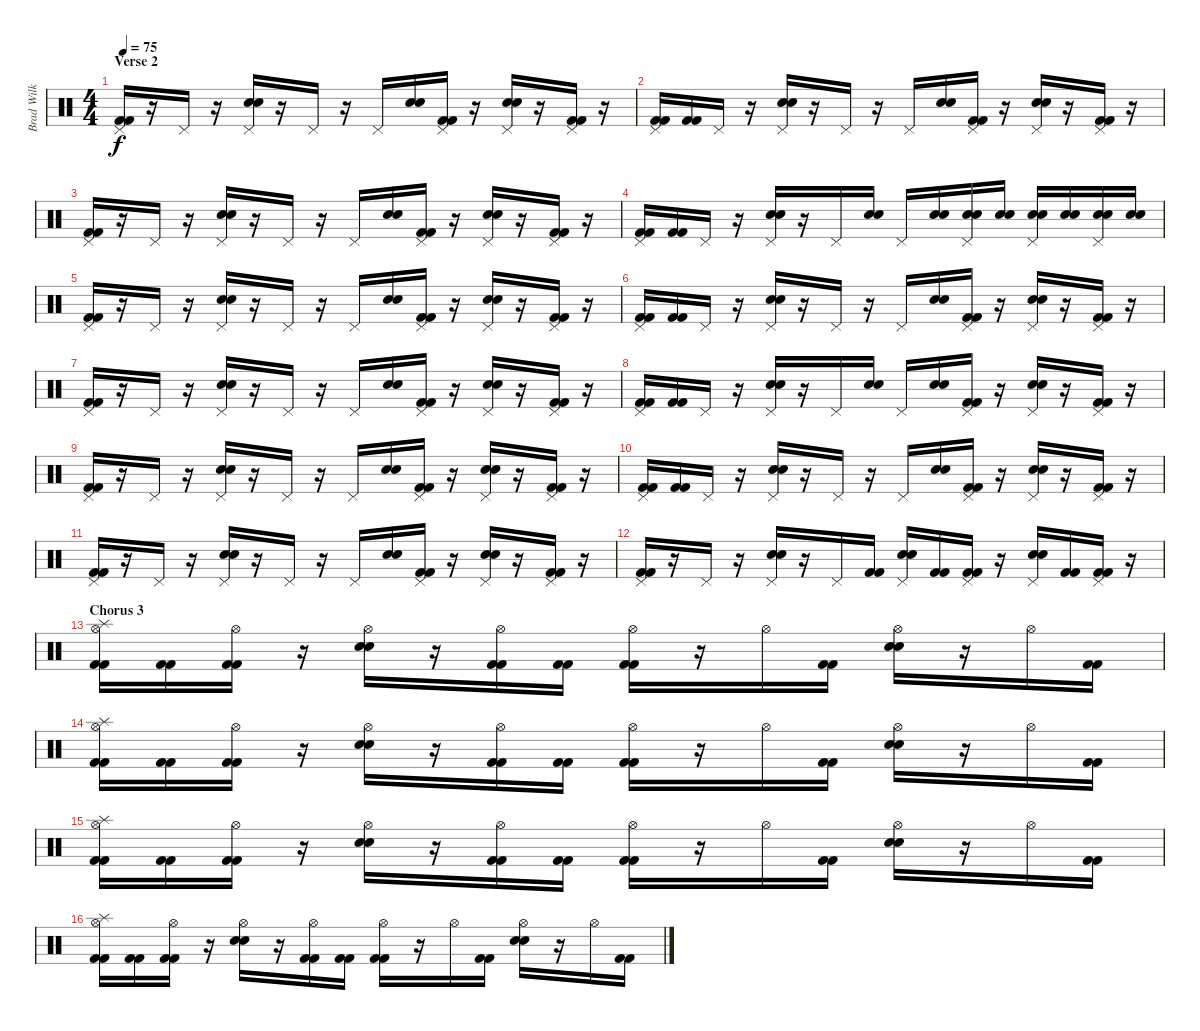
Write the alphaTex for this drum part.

\track ("Brad Wilk" "Brad Wilk") {instrument percussion}
\staff {score}
\articulation defaults
\ts (4 4)
\section ("" "Verse 2")
\tempo 75
\clef neutral
\ks c
("Pedal Hi-Hat (hit)" "Kick (hit) 2" "Kick (hit) 2").16{dy f} r.16 "Pedal Hi-Hat (hit)".16 r.16 ("Pedal Hi-Hat (hit)" "Electric Snare (hit)" "Electric Snare (hit)").16 r.16 "Pedal Hi-Hat (hit)".16 r.16 "Pedal Hi-Hat (hit)".16 ("Electric Snare (hit)" "Electric Snare (hit)").16 ("Pedal Hi-Hat (hit)" "Kick (hit) 2" "Kick (hit) 2").16 r.16 ("Pedal Hi-Hat (hit)" "Electric Snare (hit)" "Electric Snare (hit)").16 r.16 ("Pedal Hi-Hat (hit)" "Kick (hit) 2" "Kick (hit) 2").16 r.16 |
("Pedal Hi-Hat (hit)" "Kick (hit) 2" "Kick (hit) 2").16 ("Kick (hit) 2" "Kick (hit) 2").16 "Pedal Hi-Hat (hit)".16 r.16 ("Pedal Hi-Hat (hit)" "Electric Snare (hit)" "Electric Snare (hit)").16 r.16 "Pedal Hi-Hat (hit)".16 r.16 "Pedal Hi-Hat (hit)".16 ("Electric Snare (hit)" "Electric Snare (hit)").16 ("Pedal Hi-Hat (hit)" "Kick (hit) 2" "Kick (hit) 2").16 r.16 ("Pedal Hi-Hat (hit)" "Electric Snare (hit)" "Electric Snare (hit)").16 r.16 ("Pedal Hi-Hat (hit)" "Kick (hit) 2" "Kick (hit) 2").16 r.16 |
("Pedal Hi-Hat (hit)" "Kick (hit) 2" "Kick (hit) 2").16 r.16 "Pedal Hi-Hat (hit)".16 r.16 ("Pedal Hi-Hat (hit)" "Electric Snare (hit)" "Electric Snare (hit)").16 r.16 "Pedal Hi-Hat (hit)".16 r.16 "Pedal Hi-Hat (hit)".16 ("Electric Snare (hit)" "Electric Snare (hit)").16 ("Pedal Hi-Hat (hit)" "Kick (hit) 2" "Kick (hit) 2").16 r.16 ("Pedal Hi-Hat (hit)" "Electric Snare (hit)" "Electric Snare (hit)").16 r.16 ("Pedal Hi-Hat (hit)" "Kick (hit) 2" "Kick (hit) 2").16 r.16 |
("Pedal Hi-Hat (hit)" "Kick (hit) 2" "Kick (hit) 2").16 ("Kick (hit) 2" "Kick (hit) 2").16 "Pedal Hi-Hat (hit)".16 r.16 ("Pedal Hi-Hat (hit)" "Electric Snare (hit)" "Electric Snare (hit)").16 r.16 "Pedal Hi-Hat (hit)".16 ("Electric Snare (hit)" "Electric Snare (hit)").16 "Pedal Hi-Hat (hit)".16 ("Electric Snare (hit)" "Electric Snare (hit)").16 ("Pedal Hi-Hat (hit)" "Electric Snare (hit)" "Electric Snare (hit)").16 ("Electric Snare (hit)" "Electric Snare (hit)").16 ("Pedal Hi-Hat (hit)" "Electric Snare (hit)" "Electric Snare (hit)").16 ("Electric Snare (hit)" "Electric Snare (hit)").16 ("Pedal Hi-Hat (hit)" "Electric Snare (hit)" "Electric Snare (hit)").16 ("Electric Snare (hit)" "Electric Snare (hit)").16 |
("Pedal Hi-Hat (hit)" "Kick (hit) 2" "Kick (hit) 2").16{volume 16} r.16 "Pedal Hi-Hat (hit)".16 r.16 ("Pedal Hi-Hat (hit)" "Electric Snare (hit)" "Electric Snare (hit)").16 r.16 "Pedal Hi-Hat (hit)".16 r.16 "Pedal Hi-Hat (hit)".16 ("Electric Snare (hit)" "Electric Snare (hit)").16 ("Pedal Hi-Hat (hit)" "Kick (hit) 2" "Kick (hit) 2").16 r.16 ("Pedal Hi-Hat (hit)" "Electric Snare (hit)" "Electric Snare (hit)").16 r.16 ("Pedal Hi-Hat (hit)" "Kick (hit) 2" "Kick (hit) 2").16 r.16 |
("Pedal Hi-Hat (hit)" "Kick (hit) 2" "Kick (hit) 2").16 ("Kick (hit) 2" "Kick (hit) 2").16 "Pedal Hi-Hat (hit)".16 r.16 ("Pedal Hi-Hat (hit)" "Electric Snare (hit)" "Electric Snare (hit)").16 r.16 "Pedal Hi-Hat (hit)".16 r.16 "Pedal Hi-Hat (hit)".16 ("Electric Snare (hit)" "Electric Snare (hit)").16 ("Pedal Hi-Hat (hit)" "Kick (hit) 2" "Kick (hit) 2").16 r.16 ("Pedal Hi-Hat (hit)" "Electric Snare (hit)" "Electric Snare (hit)").16 r.16 ("Pedal Hi-Hat (hit)" "Kick (hit) 2" "Kick (hit) 2").16 r.16 |
("Pedal Hi-Hat (hit)" "Kick (hit) 2" "Kick (hit) 2").16 r.16 "Pedal Hi-Hat (hit)".16 r.16 ("Pedal Hi-Hat (hit)" "Electric Snare (hit)" "Electric Snare (hit)").16 r.16 "Pedal Hi-Hat (hit)".16 r.16 "Pedal Hi-Hat (hit)".16 ("Electric Snare (hit)" "Electric Snare (hit)").16 ("Pedal Hi-Hat (hit)" "Kick (hit) 2" "Kick (hit) 2").16 r.16 ("Pedal Hi-Hat (hit)" "Electric Snare (hit)" "Electric Snare (hit)").16 r.16 ("Pedal Hi-Hat (hit)" "Kick (hit) 2" "Kick (hit) 2").16 r.16 |
("Pedal Hi-Hat (hit)" "Kick (hit) 2" "Kick (hit) 2").16 ("Kick (hit) 2" "Kick (hit) 2").16 "Pedal Hi-Hat (hit)".16 r.16 ("Pedal Hi-Hat (hit)" "Electric Snare (hit)" "Electric Snare (hit)").16 r.16 "Pedal Hi-Hat (hit)".16 ("Electric Snare (hit)" "Electric Snare (hit)").16 "Pedal Hi-Hat (hit)".16 ("Electric Snare (hit)" "Electric Snare (hit)").16 ("Pedal Hi-Hat (hit)" "Kick (hit) 2" "Kick (hit) 2").16 r.16 ("Pedal Hi-Hat (hit)" "Electric Snare (hit)" "Electric Snare (hit)").16 r.16 ("Pedal Hi-Hat (hit)" "Kick (hit) 2" "Kick (hit) 2").16 r.16 |
("Pedal Hi-Hat (hit)" "Kick (hit) 2" "Kick (hit) 2").16 r.16 "Pedal Hi-Hat (hit)".16 r.16 ("Pedal Hi-Hat (hit)" "Electric Snare (hit)" "Electric Snare (hit)").16 r.16 "Pedal Hi-Hat (hit)".16 r.16 "Pedal Hi-Hat (hit)".16 ("Electric Snare (hit)" "Electric Snare (hit)").16 ("Pedal Hi-Hat (hit)" "Kick (hit) 2" "Kick (hit) 2").16 r.16 ("Pedal Hi-Hat (hit)" "Electric Snare (hit)" "Electric Snare (hit)").16 r.16 ("Pedal Hi-Hat (hit)" "Kick (hit) 2" "Kick (hit) 2").16 r.16 |
("Pedal Hi-Hat (hit)" "Kick (hit) 2" "Kick (hit) 2").16 ("Kick (hit) 2" "Kick (hit) 2").16 "Pedal Hi-Hat (hit)".16 r.16 ("Pedal Hi-Hat (hit)" "Electric Snare (hit)" "Electric Snare (hit)").16 r.16 "Pedal Hi-Hat (hit)".16 r.16 "Pedal Hi-Hat (hit)".16 ("Electric Snare (hit)" "Electric Snare (hit)").16 ("Pedal Hi-Hat (hit)" "Kick (hit) 2" "Kick (hit) 2").16 r.16 ("Pedal Hi-Hat (hit)" "Electric Snare (hit)" "Electric Snare (hit)").16 r.16 ("Pedal Hi-Hat (hit)" "Kick (hit) 2" "Kick (hit) 2").16 r.16 |
("Pedal Hi-Hat (hit)" "Kick (hit) 2" "Kick (hit) 2").16 r.16 "Pedal Hi-Hat (hit)".16 r.16 ("Pedal Hi-Hat (hit)" "Electric Snare (hit)" "Electric Snare (hit)").16 r.16 "Pedal Hi-Hat (hit)".16 r.16 "Pedal Hi-Hat (hit)".16 ("Electric Snare (hit)" "Electric Snare (hit)").16 ("Pedal Hi-Hat (hit)" "Kick (hit) 2" "Kick (hit) 2").16 r.16 ("Pedal Hi-Hat (hit)" "Electric Snare (hit)" "Electric Snare (hit)").16 r.16 ("Pedal Hi-Hat (hit)" "Kick (hit) 2" "Kick (hit) 2").16 r.16 |
("Pedal Hi-Hat (hit)" "Kick (hit) 2" "Kick (hit) 2").16 r.16 "Pedal Hi-Hat (hit)".16 r.16 ("Pedal Hi-Hat (hit)" "Electric Snare (hit)" "Electric Snare (hit)").16 r.16 "Pedal Hi-Hat (hit)".16 ("Kick (hit) 2" "Kick (hit) 2").16 ("Pedal Hi-Hat (hit)" "Electric Snare (hit)" "Electric Snare (hit)").16 ("Kick (hit) 2" "Kick (hit) 2").16 ("Pedal Hi-Hat (hit)" "Kick (hit) 2" "Kick (hit) 2").16 r.16 ("Pedal Hi-Hat (hit)" "Electric Snare (hit)" "Electric Snare (hit)").16 ("Kick (hit) 2" "Kick (hit) 2").16 ("Pedal Hi-Hat (hit)" "Kick (hit) 2" "Kick (hit) 2").16 r.16 |
\section ("" "Chorus 3")
("Hi-Hat (open)" "Splash (hit)" "Kick (hit) 2" "Kick (hit) 2").16 ("Kick (hit) 2" "Kick (hit) 2").16 ("Hi-Hat (open)" "Kick (hit) 2" "Kick (hit) 2").16 r.16 ("Hi-Hat (open)" "Electric Snare (hit)" "Electric Snare (hit)").16 r.16 ("Hi-Hat (open)" "Kick (hit) 2" "Kick (hit) 2").16 ("Kick (hit) 2" "Kick (hit) 2").16 ("Hi-Hat (open)" "Kick (hit) 2" "Kick (hit) 2").16 r.16 "Hi-Hat (open)".16 ("Kick (hit) 2" "Kick (hit) 2").16 ("Hi-Hat (open)" "Electric Snare (hit)" "Electric Snare (hit)").16 r.16 "Hi-Hat (open)".16 ("Kick (hit) 2" "Kick (hit) 2").16 |
("Hi-Hat (open)" "Splash (hit)" "Kick (hit) 2" "Kick (hit) 2").16 ("Kick (hit) 2" "Kick (hit) 2").16 ("Hi-Hat (open)" "Kick (hit) 2" "Kick (hit) 2").16 r.16 ("Hi-Hat (open)" "Electric Snare (hit)" "Electric Snare (hit)").16 r.16 ("Hi-Hat (open)" "Kick (hit) 2" "Kick (hit) 2").16 ("Kick (hit) 2" "Kick (hit) 2").16 ("Hi-Hat (open)" "Kick (hit) 2" "Kick (hit) 2").16 r.16 "Hi-Hat (open)".16 ("Kick (hit) 2" "Kick (hit) 2").16 ("Hi-Hat (open)" "Electric Snare (hit)" "Electric Snare (hit)").16 r.16 "Hi-Hat (open)".16 ("Kick (hit) 2" "Kick (hit) 2").16 |
("Hi-Hat (open)" "Splash (hit)" "Kick (hit) 2" "Kick (hit) 2").16 ("Kick (hit) 2" "Kick (hit) 2").16 ("Hi-Hat (open)" "Kick (hit) 2" "Kick (hit) 2").16 r.16 ("Hi-Hat (open)" "Electric Snare (hit)" "Electric Snare (hit)").16 r.16 ("Hi-Hat (open)" "Kick (hit) 2" "Kick (hit) 2").16 ("Kick (hit) 2" "Kick (hit) 2").16 ("Hi-Hat (open)" "Kick (hit) 2" "Kick (hit) 2").16 r.16 "Hi-Hat (open)".16 ("Kick (hit) 2" "Kick (hit) 2").16 ("Hi-Hat (open)" "Electric Snare (hit)" "Electric Snare (hit)").16 r.16 "Hi-Hat (open)".16 ("Kick (hit) 2" "Kick (hit) 2").16 |
("Hi-Hat (open)" "Splash (hit)" "Kick (hit) 2" "Kick (hit) 2").16 ("Kick (hit) 2" "Kick (hit) 2").16 ("Hi-Hat (open)" "Kick (hit) 2" "Kick (hit) 2").16 r.16 ("Hi-Hat (open)" "Electric Snare (hit)" "Electric Snare (hit)").16 r.16 ("Hi-Hat (open)" "Kick (hit) 2" "Kick (hit) 2").16 ("Kick (hit) 2" "Kick (hit) 2").16 ("Hi-Hat (open)" "Kick (hit) 2" "Kick (hit) 2").16 r.16 "Hi-Hat (open)".16 ("Kick (hit) 2" "Kick (hit) 2").16 ("Hi-Hat (open)" "Electric Snare (hit)" "Electric Snare (hit)").16 r.16 "Hi-Hat (open)".16 ("Kick (hit) 2" "Kick (hit) 2").16
